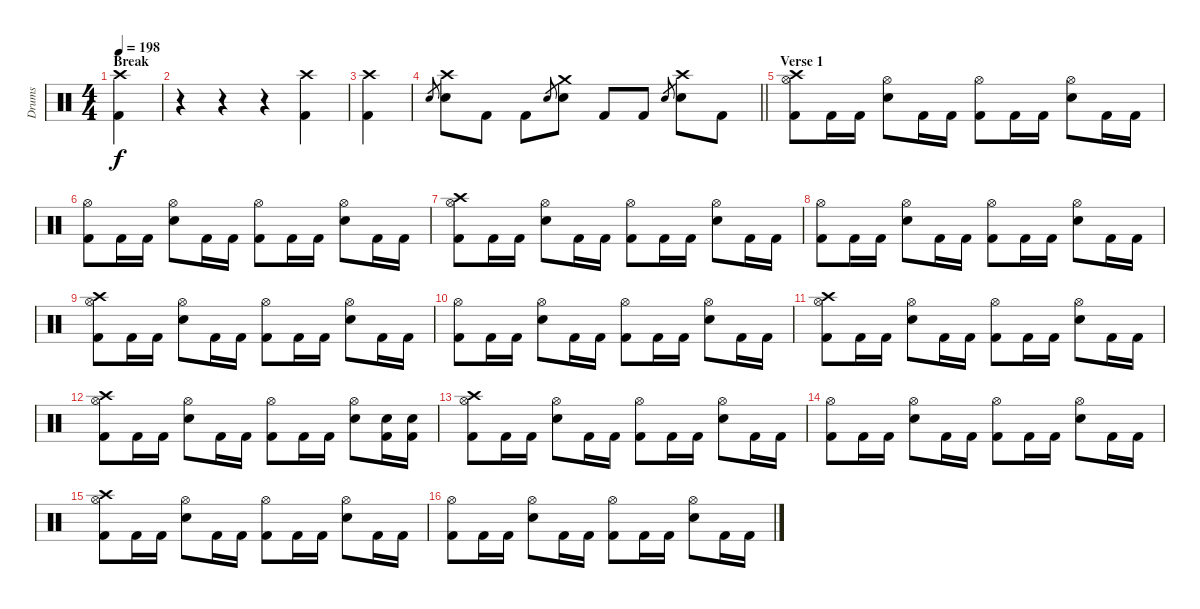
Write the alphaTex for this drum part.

\track ("Drums" "Drums") {instrument percussion}
\staff {score}
\articulation defaults
\ts (4 4)
\section ("" "Break")
\tempo 198
\clef neutral
\ks c
("Crash high (hit)" "Kick (hit) 2").4{dy f} |
r.4 r.4 r.4 ("Crash high (hit)" "Kick (hit) 2").4 |
("Crash high (hit)" "Kick (hit) 2").4 |
\barLineRight lightlight "Snare (hit) 2".8{gr}
("Crash high (hit)" "Snare (hit) 2").8 "Kick (hit) 2".8 "Kick (hit) 2".8 "Snare (hit) 2".8{gr} ("Crash medium (hit)" "Snare (hit) 2").8 "Kick (hit) 2".8 "Kick (hit) 2".8 "Snare (hit) 2".8{gr} ("Crash high (hit)" "Snare (hit) 2").8 "Kick (hit) 2".8 |
\section ("" "Verse 1")
("Crash high (hit)" "Hi-Hat (open)" "Kick (hit) 2").8 "Kick (hit) 2".16 "Kick (hit) 2".16 ("Hi-Hat (open)" "Snare (hit) 2").8 "Kick (hit) 2".16 "Kick (hit) 2".16 ("Hi-Hat (open)" "Kick (hit) 2").8 "Kick (hit) 2".16 "Kick (hit) 2".16 ("Hi-Hat (open)" "Snare (hit) 2").8 "Kick (hit) 2".16 "Kick (hit) 2".16 |
("Hi-Hat (open)" "Kick (hit) 2").8 "Kick (hit) 2".16 "Kick (hit) 2".16 ("Hi-Hat (open)" "Snare (hit) 2").8 "Kick (hit) 2".16 "Kick (hit) 2".16 ("Hi-Hat (open)" "Kick (hit) 2").8 "Kick (hit) 2".16 "Kick (hit) 2".16 ("Hi-Hat (open)" "Snare (hit) 2").8 "Kick (hit) 2".16 "Kick (hit) 2".16 |
("Crash high (hit)" "Hi-Hat (open)" "Kick (hit) 2").8 "Kick (hit) 2".16 "Kick (hit) 2".16 ("Hi-Hat (open)" "Snare (hit) 2").8 "Kick (hit) 2".16 "Kick (hit) 2".16 ("Hi-Hat (open)" "Kick (hit) 2").8 "Kick (hit) 2".16 "Kick (hit) 2".16 ("Hi-Hat (open)" "Snare (hit) 2").8 "Kick (hit) 2".16 "Kick (hit) 2".16 |
("Hi-Hat (open)" "Kick (hit) 2").8 "Kick (hit) 2".16 "Kick (hit) 2".16 ("Hi-Hat (open)" "Snare (hit) 2").8 "Kick (hit) 2".16 "Kick (hit) 2".16 ("Hi-Hat (open)" "Kick (hit) 2").8 "Kick (hit) 2".16 "Kick (hit) 2".16 ("Hi-Hat (open)" "Snare (hit) 2").8 "Kick (hit) 2".16 "Kick (hit) 2".16 |
("Crash high (hit)" "Hi-Hat (open)" "Kick (hit) 2").8 "Kick (hit) 2".16 "Kick (hit) 2".16 ("Hi-Hat (open)" "Snare (hit) 2").8 "Kick (hit) 2".16 "Kick (hit) 2".16 ("Hi-Hat (open)" "Kick (hit) 2").8 "Kick (hit) 2".16 "Kick (hit) 2".16 ("Hi-Hat (open)" "Snare (hit) 2").8 "Kick (hit) 2".16 "Kick (hit) 2".16 |
("Hi-Hat (open)" "Kick (hit) 2").8 "Kick (hit) 2".16 "Kick (hit) 2".16 ("Hi-Hat (open)" "Snare (hit) 2").8 "Kick (hit) 2".16 "Kick (hit) 2".16 ("Hi-Hat (open)" "Kick (hit) 2").8 "Kick (hit) 2".16 "Kick (hit) 2".16 ("Hi-Hat (open)" "Snare (hit) 2").8 "Kick (hit) 2".16 "Kick (hit) 2".16 |
("Crash high (hit)" "Hi-Hat (open)" "Kick (hit) 2").8 "Kick (hit) 2".16 "Kick (hit) 2".16 ("Hi-Hat (open)" "Snare (hit) 2").8 "Kick (hit) 2".16 "Kick (hit) 2".16 ("Hi-Hat (open)" "Kick (hit) 2").8 "Kick (hit) 2".16 "Kick (hit) 2".16 ("Hi-Hat (open)" "Snare (hit) 2").8 "Kick (hit) 2".16 "Kick (hit) 2".16 |
("Crash high (hit)" "Hi-Hat (open)" "Kick (hit) 2").8 "Kick (hit) 2".16 "Kick (hit) 2".16 ("Hi-Hat (open)" "Snare (hit) 2").8 "Kick (hit) 2".16 "Kick (hit) 2".16 ("Hi-Hat (open)" "Kick (hit) 2").8 "Kick (hit) 2".16 "Kick (hit) 2".16 ("Hi-Hat (open)" "Snare (hit) 2").8 ("Snare (hit) 2" "Kick (hit) 2").16 ("Snare (hit) 2" "Kick (hit) 2").16 |
("Crash high (hit)" "Hi-Hat (open)" "Kick (hit) 2").8 "Kick (hit) 2".16 "Kick (hit) 2".16 ("Hi-Hat (open)" "Snare (hit) 2").8 "Kick (hit) 2".16 "Kick (hit) 2".16 ("Hi-Hat (open)" "Kick (hit) 2").8 "Kick (hit) 2".16 "Kick (hit) 2".16 ("Hi-Hat (open)" "Snare (hit) 2").8 "Kick (hit) 2".16 "Kick (hit) 2".16 |
("Hi-Hat (open)" "Kick (hit) 2").8 "Kick (hit) 2".16 "Kick (hit) 2".16 ("Hi-Hat (open)" "Snare (hit) 2").8 "Kick (hit) 2".16 "Kick (hit) 2".16 ("Hi-Hat (open)" "Kick (hit) 2").8 "Kick (hit) 2".16 "Kick (hit) 2".16 ("Hi-Hat (open)" "Snare (hit) 2").8 "Kick (hit) 2".16 "Kick (hit) 2".16 |
("Crash high (hit)" "Hi-Hat (open)" "Kick (hit) 2").8 "Kick (hit) 2".16 "Kick (hit) 2".16 ("Hi-Hat (open)" "Snare (hit) 2").8 "Kick (hit) 2".16 "Kick (hit) 2".16 ("Hi-Hat (open)" "Kick (hit) 2").8 "Kick (hit) 2".16 "Kick (hit) 2".16 ("Hi-Hat (open)" "Snare (hit) 2").8 "Kick (hit) 2".16 "Kick (hit) 2".16 |
("Hi-Hat (open)" "Kick (hit) 2").8 "Kick (hit) 2".16 "Kick (hit) 2".16 ("Hi-Hat (open)" "Snare (hit) 2").8 "Kick (hit) 2".16 "Kick (hit) 2".16 ("Hi-Hat (open)" "Kick (hit) 2").8 "Kick (hit) 2".16 "Kick (hit) 2".16 ("Hi-Hat (open)" "Snare (hit) 2").8 "Kick (hit) 2".16 "Kick (hit) 2".16
